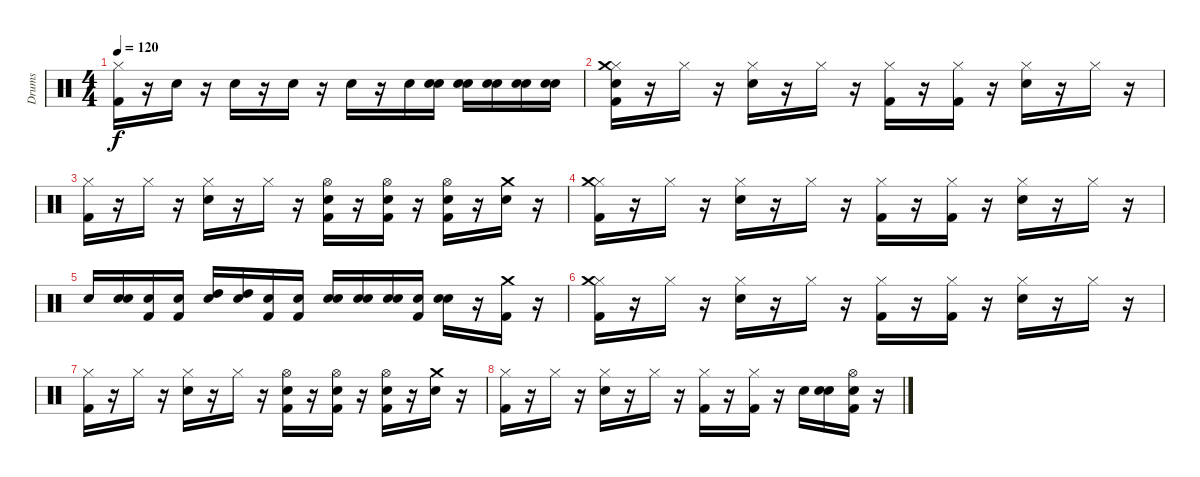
\track ("Drums" "Drums") {instrument percussion}
\staff {score}
\articulation defaults
\ts (4 4)
\tempo 120
\clef neutral
\ks c
("Kick (hit) 2" "Hi-Hat (closed)").16{dy f} r.16 "Snare (hit) 2".16 r.16 "Snare (hit) 2".16 r.16 "Snare (hit) 2".16 r.16 "Snare (hit) 2".16 r.16 "Snare (hit) 2".16 ("Snare (hit)" "Snare (hit) 2").16 ("Snare (hit)" "Snare (hit) 2").16 ("Snare (hit)" "Snare (hit) 2").16 ("Snare (hit)" "Snare (hit) 2").16 ("Snare (hit)" "Snare (hit) 2").16 |
("Snare (hit)" "Kick (hit) 2" "Hi-Hat (closed)" "Crash medium (hit)").16 r.16 "Hi-Hat (closed)".16 r.16 ("Snare (hit) 2" "Hi-Hat (closed)").16 r.16 "Hi-Hat (closed)".16 r.16 ("Kick (hit) 2" "Hi-Hat (closed)").16 r.16 ("Kick (hit) 2" "Hi-Hat (closed)").16 r.16 ("Snare (hit) 2" "Hi-Hat (closed)").16 r.16 "Hi-Hat (closed)".16 r.16 |
("Kick (hit) 2" "Hi-Hat (closed)").16 r.16 "Hi-Hat (closed)".16 r.16 ("Snare (hit) 2" "Hi-Hat (closed)").16 r.16 "Hi-Hat (closed)".16 r.16 ("Kick (hit) 2" "Snare (hit) 2" "Hi-Hat (open)").16 r.16 ("Kick (hit) 2" "Snare (hit) 2" "Hi-Hat (open)").16 r.16 ("Kick (hit) 2" "Snare (hit) 2" "Hi-Hat (open)").16 r.16 ("Snare (hit) 2" "Crash medium (hit)").16 r.16 |
("Kick (hit) 2" "Hi-Hat (closed)" "Crash medium (hit)").16 r.16 "Hi-Hat (closed)".16 r.16 ("Snare (hit) 2" "Hi-Hat (closed)").16 r.16 "Hi-Hat (closed)".16 r.16 ("Kick (hit) 2" "Hi-Hat (closed)").16 r.16 ("Kick (hit) 2" "Hi-Hat (closed)").16 r.16 ("Snare (hit) 2" "Hi-Hat (closed)").16 r.16 "Hi-Hat (closed)".16 r.16 |
"Snare (hit) 2".16 ("Snare (hit)" "Snare (hit) 2").16 ("Snare (hit)" "Kick (hit) 2").16 ("Snare (hit)" "Kick (hit) 2").16 ("Snare (hit)" "High Tom (hit)").16 ("Snare (hit)" "High Tom (hit)").16 ("Snare (hit)" "Kick (hit) 2").16 ("Snare (hit)" "Kick (hit) 2").16 ("Snare (hit)" "Snare (hit) 2").16 ("Snare (hit)" "Snare (hit) 2").16 ("Snare (hit)" "Snare (hit) 2").16 ("Snare (hit)" "Kick (hit) 2").16 ("Snare (hit)" "Snare (hit) 2").16 r.16 ("Kick (hit) 2" "Crash medium (hit)").16 r.16 |
("Kick (hit) 2" "Hi-Hat (closed)" "Crash medium (hit)").16 r.16 "Hi-Hat (closed)".16 r.16 ("Snare (hit) 2" "Hi-Hat (closed)").16 r.16 "Hi-Hat (closed)".16 r.16 ("Kick (hit) 2" "Hi-Hat (closed)").16 r.16 ("Kick (hit) 2" "Hi-Hat (closed)").16 r.16 ("Snare (hit) 2" "Hi-Hat (closed)").16 r.16 "Hi-Hat (closed)".16 r.16 |
("Kick (hit) 2" "Hi-Hat (closed)").16 r.16 "Hi-Hat (closed)".16 r.16 ("Snare (hit) 2" "Hi-Hat (closed)").16 r.16 "Hi-Hat (closed)".16 r.16 ("Kick (hit) 2" "Snare (hit) 2" "Hi-Hat (open)").16 r.16 ("Kick (hit) 2" "Snare (hit) 2" "Hi-Hat (open)").16 r.16 ("Kick (hit) 2" "Snare (hit) 2" "Hi-Hat (open)").16 r.16 ("Snare (hit) 2" "Crash medium (hit)").16 r.16 |
("Kick (hit) 2" "Hi-Hat (closed)").16 r.16 "Hi-Hat (closed)".16 r.16 ("Snare (hit) 2" "Hi-Hat (closed)").16 r.16 "Hi-Hat (closed)".16 r.16 ("Kick (hit) 2" "Hi-Hat (closed)").16 r.16 ("Kick (hit) 2" "Hi-Hat (closed)").16 r.16 "Snare (hit) 2".16 ("Snare (hit)" "Snare (hit) 2").16 ("Snare (hit)" "Kick (hit) 2" "Hi-Hat (open)").16 r.16
